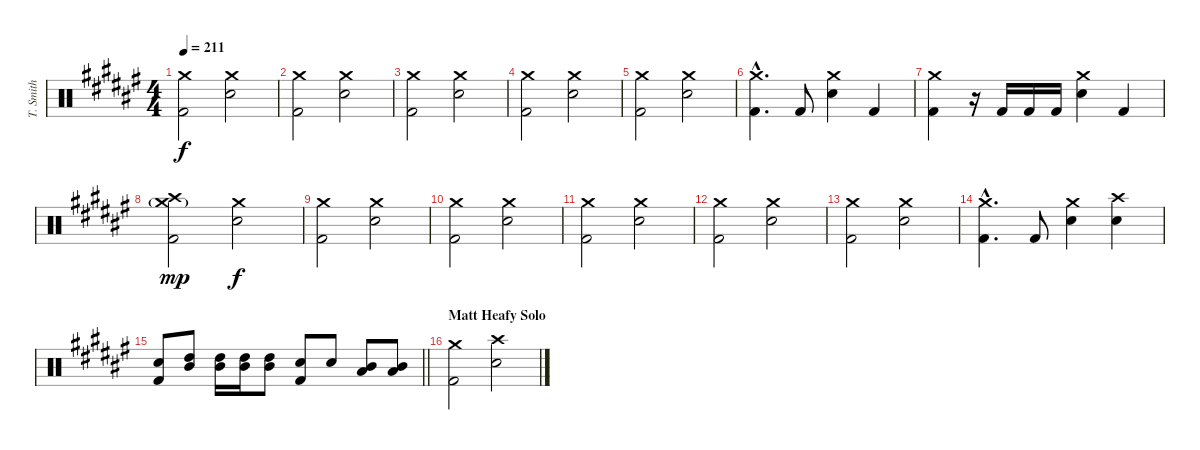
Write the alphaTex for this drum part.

\track ("T. Smith" "T. Smith") {instrument percussion}
\staff {score}
\articulation defaults
\ts (4 4)
\tempo 211
\clef neutral
\ks d#minor
("Crash medium (hit)" "Kick (hit) 2").2{dy f} ("Crash medium (hit)" "Electric Snare (hit)").2 |
("Crash medium (hit)" "Kick (hit) 2").2 ("Crash medium (hit)" "Electric Snare (hit)").2 |
("Crash medium (hit)" "Kick (hit) 2").2 ("Crash medium (hit)" "Electric Snare (hit)").2 |
("Crash medium (hit)" "Kick (hit) 2").2 ("Crash medium (hit)" "Electric Snare (hit)").2 |
("Crash medium (hit)" "Kick (hit) 2").2 ("Crash medium (hit)" "Electric Snare (hit)").2 |
("Crash medium (hit)"{hac} "Kick (hit) 2"{hac}).4{d} "Kick (hit) 2".8 ("Crash medium (hit)" "Electric Snare (hit)").4 "Kick (hit) 2".4 |
("Crash medium (hit)" "Kick (hit) 2").4 r.16 "Kick (hit) 2".16 "Kick (hit) 2".16 "Kick (hit) 2".16 ("Crash medium (hit)" "Electric Snare (hit)").4 "Kick (hit) 2".4 |
("Crash medium (hit)"{g} "Crash high (hit)" "Kick (hit) 2").2{dy mp} ("Crash medium (hit)" "Electric Snare (hit)").2{dy f} |
("Crash medium (hit)" "Kick (hit) 2").2 ("Crash medium (hit)" "Electric Snare (hit)").2 |
("Crash medium (hit)" "Kick (hit) 2").2 ("Crash medium (hit)" "Electric Snare (hit)").2 |
("Crash medium (hit)" "Kick (hit) 2").2 ("Crash medium (hit)" "Electric Snare (hit)").2 |
("Crash medium (hit)" "Kick (hit) 2").2 ("Crash medium (hit)" "Electric Snare (hit)").2 |
("Crash medium (hit)" "Kick (hit) 2").2 ("Crash medium (hit)" "Electric Snare (hit)").2 |
("Crash medium (hit)"{hac} "Kick (hit) 2"{hac}).4{d} "Kick (hit) 2".8 ("Crash medium (hit)" "Electric Snare (hit)").4 ("Crash high (hit)" "Electric Snare (hit)").4 |
\barLineRight lightlight
("Electric Snare (hit)" "Kick (hit) 2").8 ("High Tom (hit)" "Mid Tom (hit)").8 ("High Tom (hit)" "Mid Tom (hit)").16 ("High Tom (hit)" "Mid Tom (hit)").16 ("High Tom (hit)" "Mid Tom (hit)").8 ("Electric Snare (hit)" "Kick (hit) 2").8 "Electric Snare (hit)".8 ("Mid Tom (hit)" "Low Tom (hit)").8 ("Mid Tom (hit)" "Low Tom (hit)").8 |
\section ("" "Matt Heafy Solo")
("Crash medium (hit)" "Kick (hit) 2").2 ("Crash high (hit)" "Electric Snare (hit)").2
